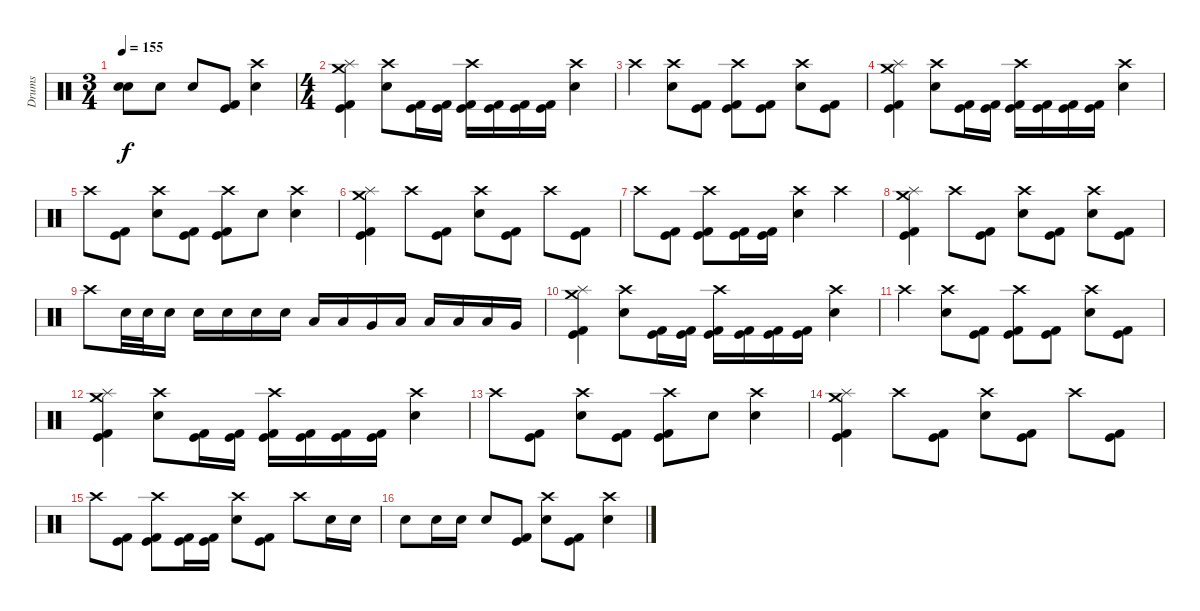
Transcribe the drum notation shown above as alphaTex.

\track ("Drums" "Drums") {instrument percussion}
\staff {score}
\articulation defaults
\ts (3 4)
\tempo 155
\clef neutral
\ks c
("Snare (hit)"{t} "Snare (hit)"{t}).8{dy f} "Electric Snare (hit)".8 "Electric Snare (hit)".8 ("Kick (hit)" "Kick (hit) 2").8 ("Crash high (hit)" "Electric Snare (hit)").4 |
\ts (4 4)
("Crash medium (hit)" "Splash (hit)" "Kick (hit)" "Kick (hit) 2").4 ("Crash high (hit)" "Electric Snare (hit)").8 ("Kick (hit)" "Kick (hit) 2").16 ("Kick (hit)" "Kick (hit) 2").16 ("Crash high (hit)" "Kick (hit)" "Kick (hit) 2").16 ("Kick (hit)" "Kick (hit) 2").16 ("Kick (hit)" "Kick (hit) 2").16 ("Kick (hit)" "Kick (hit) 2").16 ("Crash high (hit)" "Electric Snare (hit)").4 |
"Crash high (hit)".4 ("Crash high (hit)" "Electric Snare (hit)").8 ("Kick (hit)" "Kick (hit) 2").8 ("Crash high (hit)" "Kick (hit)" "Kick (hit) 2").8 ("Kick (hit)" "Kick (hit) 2").8 ("Crash high (hit)" "Electric Snare (hit)").8 ("Kick (hit)" "Kick (hit) 2").8 |
("Crash medium (hit)" "Splash (hit)" "Kick (hit)" "Kick (hit) 2").4 ("Crash high (hit)" "Electric Snare (hit)").8 ("Kick (hit)" "Kick (hit) 2").16 ("Kick (hit)" "Kick (hit) 2").16 ("Crash high (hit)" "Kick (hit)" "Kick (hit) 2").16 ("Kick (hit)" "Kick (hit) 2").16 ("Kick (hit)" "Kick (hit) 2").16 ("Kick (hit)" "Kick (hit) 2").16 ("Crash high (hit)" "Electric Snare (hit)").4 |
"Crash high (hit)".8 ("Kick (hit)" "Kick (hit) 2").8 ("Crash high (hit)" "Electric Snare (hit)").8 ("Kick (hit)" "Kick (hit) 2").8 ("Crash high (hit)" "Kick (hit)" "Kick (hit) 2").8 "Electric Snare (hit)".8 ("Crash high (hit)" "Electric Snare (hit)").4 |
("Crash medium (hit)" "Splash (hit)" "Kick (hit)" "Kick (hit) 2").4 "Crash high (hit)".8 ("Kick (hit)" "Kick (hit) 2").8 ("Crash high (hit)" "Electric Snare (hit)").8 ("Kick (hit)" "Kick (hit) 2").8 "Crash high (hit)".8 ("Kick (hit)" "Kick (hit) 2").8 |
"Crash high (hit)".8 ("Kick (hit)" "Kick (hit) 2").8 ("Crash high (hit)" "Kick (hit)" "Kick (hit) 2").8 ("Kick (hit)" "Kick (hit) 2").16 ("Kick (hit)" "Kick (hit) 2").16 ("Crash high (hit)" "Electric Snare (hit)").4 "Crash high (hit)".4 |
("Crash medium (hit)" "Splash (hit)" "Kick (hit)" "Kick (hit) 2").4 "Crash high (hit)".8 ("Kick (hit)" "Kick (hit) 2").8 ("Crash high (hit)" "Electric Snare (hit)").8 ("Kick (hit)" "Kick (hit) 2").8 ("Crash high (hit)" "Electric Snare (hit)").8 ("Kick (hit)" "Kick (hit) 2").8 |
"Crash high (hit)".8 "Electric Snare (hit)".32 "Electric Snare (hit)".32 "Electric Snare (hit)".16 "Electric Snare (hit)".16 "Electric Snare (hit)".16 "Electric Snare (hit)".16 "Electric Snare (hit)".16 "Low Tom (hit)".16 "Low Tom (hit)".16 "Very Low Tom (hit)".16 "Low Floor Tom (hit)".16 "Low Tom (hit)".16 "Low Tom (hit)".16 "Low Floor Tom (hit)".16 "Very Low Tom (hit)".16 |
("Crash medium (hit)" "Splash (hit)" "Kick (hit)" "Kick (hit) 2").4 ("Crash high (hit)" "Electric Snare (hit)").8 ("Kick (hit)" "Kick (hit) 2").16 ("Kick (hit)" "Kick (hit) 2").16 ("Crash high (hit)" "Kick (hit)" "Kick (hit) 2").16 ("Kick (hit)" "Kick (hit) 2").16 ("Kick (hit)" "Kick (hit) 2").16 ("Kick (hit)" "Kick (hit) 2").16 ("Crash high (hit)" "Electric Snare (hit)").4 |
"Crash high (hit)".4 ("Crash high (hit)" "Electric Snare (hit)").8 ("Kick (hit)" "Kick (hit) 2").8 ("Crash high (hit)" "Kick (hit)" "Kick (hit) 2").8 ("Kick (hit)" "Kick (hit) 2").8 ("Crash high (hit)" "Electric Snare (hit)").8 ("Kick (hit)" "Kick (hit) 2").8 |
("Crash medium (hit)" "Splash (hit)" "Kick (hit)" "Kick (hit) 2").4 ("Crash high (hit)" "Electric Snare (hit)").8 ("Kick (hit)" "Kick (hit) 2").16 ("Kick (hit)" "Kick (hit) 2").16 ("Crash high (hit)" "Kick (hit)" "Kick (hit) 2").16 ("Kick (hit)" "Kick (hit) 2").16 ("Kick (hit)" "Kick (hit) 2").16 ("Kick (hit)" "Kick (hit) 2").16 ("Crash high (hit)" "Electric Snare (hit)").4 |
"Crash high (hit)".8 ("Kick (hit)" "Kick (hit) 2").8 ("Crash high (hit)" "Electric Snare (hit)").8 ("Kick (hit)" "Kick (hit) 2").8 ("Crash high (hit)" "Kick (hit)" "Kick (hit) 2").8 "Electric Snare (hit)".8 ("Crash high (hit)" "Electric Snare (hit)").4 |
("Crash medium (hit)" "Splash (hit)" "Kick (hit)" "Kick (hit) 2").4 "Crash high (hit)".8 ("Kick (hit)" "Kick (hit) 2").8 ("Crash high (hit)" "Electric Snare (hit)").8 ("Kick (hit)" "Kick (hit) 2").8 "Crash high (hit)".8 ("Kick (hit)" "Kick (hit) 2").8 |
"Crash high (hit)".8 ("Kick (hit)" "Kick (hit) 2").8 ("Crash high (hit)" "Kick (hit)" "Kick (hit) 2").8 ("Kick (hit)" "Kick (hit) 2").16 ("Kick (hit)" "Kick (hit) 2").16 ("Crash high (hit)" "Electric Snare (hit)").8 ("Kick (hit)" "Kick (hit) 2").8 "Crash high (hit)".8 "Electric Snare (hit)".16 "Electric Snare (hit)".16 |
"Electric Snare (hit)".8 "Electric Snare (hit)".16 "Electric Snare (hit)".16 "Electric Snare (hit)".8 ("Kick (hit)" "Kick (hit) 2").8 ("Crash high (hit)" "Electric Snare (hit)").8 ("Kick (hit)" "Kick (hit) 2").8 ("Crash high (hit)" "Electric Snare (hit)").4
